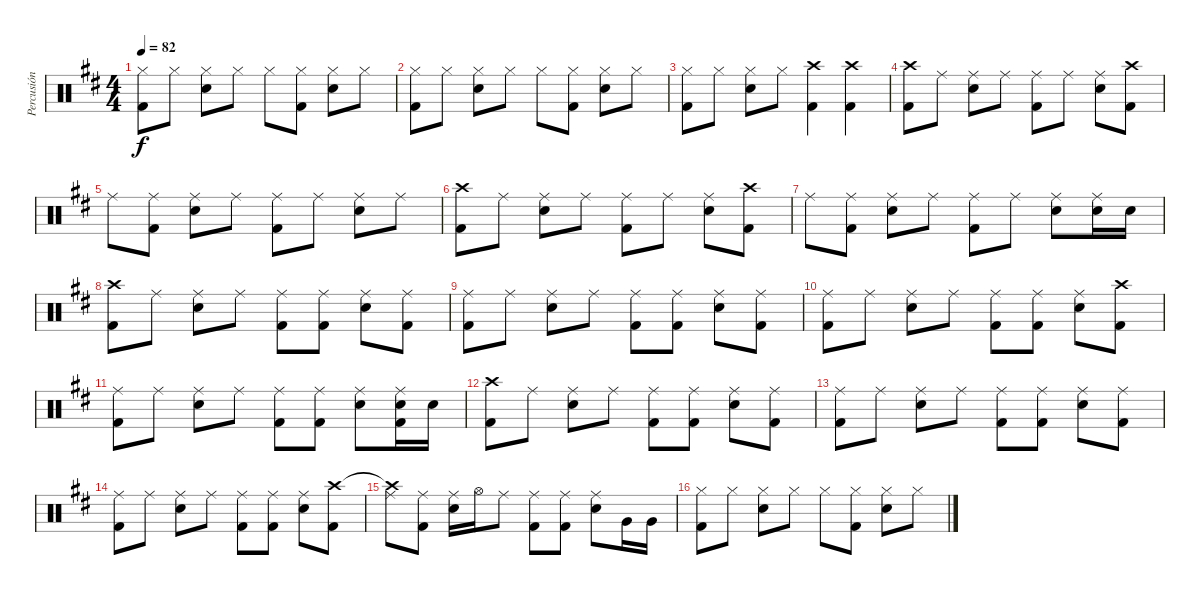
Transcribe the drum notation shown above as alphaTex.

\track ("Percusión" "Percusión") {instrument percussion}
\staff {score}
\articulation defaults
\ts (4 4)
\tempo 82
\clef neutral
\ks d
("Hi-Hat (closed)" "Kick (hit) 2").8{dy f} "Hi-Hat (closed)".8 ("Hi-Hat (closed)" "Snare (hit) 2").8 "Hi-Hat (closed)".8 "Hi-Hat (closed)".8 ("Hi-Hat (closed)" "Kick (hit) 2").8 ("Hi-Hat (closed)" "Snare (hit) 2").8 "Hi-Hat (closed)".8 |
("Hi-Hat (closed)" "Kick (hit) 2").8 "Hi-Hat (closed)".8 ("Hi-Hat (closed)" "Snare (hit) 2").8 "Hi-Hat (closed)".8 "Hi-Hat (closed)".8 ("Hi-Hat (closed)" "Kick (hit) 2").8 ("Hi-Hat (closed)" "Snare (hit) 2").8 "Hi-Hat (closed)".8 |
("Hi-Hat (closed)" "Kick (hit) 2").8 "Hi-Hat (closed)".8 ("Hi-Hat (closed)" "Snare (hit) 2").8 "Hi-Hat (closed)".8 ("Crash high (hit)" "Kick (hit) 2").4 ("Crash high (hit)" "Kick (hit) 2").4 |
("Crash high (hit)" "Kick (hit) 2").8 "Ride (middle)".8 ("Ride (middle)" "Snare (hit) 2").8 "Ride (middle)".8 ("Ride (middle)" "Kick (hit) 2").8 "Ride (middle)".8 ("Ride (middle)" "Snare (hit) 2").8 ("Crash high (hit)" "Kick (hit) 2").8 |
"Ride (middle)".8 ("Ride (middle)" "Kick (hit) 2").8 ("Ride (middle)" "Snare (hit) 2").8 "Ride (middle)".8 ("Ride (middle)" "Kick (hit) 2").8 "Ride (middle)".8 ("Ride (middle)" "Snare (hit) 2").8 "Ride (middle)".8 |
("Crash high (hit)" "Kick (hit) 2").8 "Ride (middle)".8 ("Ride (middle)" "Snare (hit) 2").8 "Ride (middle)".8 ("Ride (middle)" "Kick (hit) 2").8 "Ride (middle)".8 ("Ride (middle)" "Snare (hit) 2").8 ("Crash high (hit)" "Kick (hit) 2").8 |
"Ride (middle)".8 ("Ride (middle)" "Kick (hit) 2").8 ("Ride (middle)" "Snare (hit) 2").8 "Ride (middle)".8 ("Ride (middle)" "Kick (hit) 2").8 "Ride (middle)".8 ("Ride (middle)" "Snare (hit) 2").8 ("Ride (middle)" "Snare (hit) 2").16 "Snare (hit) 2".16 |
("Crash high (hit)" "Kick (hit) 2").8 "Ride (middle)".8 ("Ride (middle)" "Snare (hit) 2").8 "Ride (middle)".8 ("Ride (middle)" "Kick (hit) 2").8 ("Ride (middle)" "Kick (hit) 2").8 ("Ride (middle)" "Snare (hit) 2").8 ("Ride (middle)" "Kick (hit) 2").8 |
("Ride (middle)" "Kick (hit) 2").8 "Ride (middle)".8 ("Ride (middle)" "Snare (hit) 2").8 "Ride (middle)".8 ("Ride (middle)" "Kick (hit) 2").8 ("Ride (middle)" "Kick (hit) 2").8 ("Ride (middle)" "Snare (hit) 2").8 ("Ride (middle)" "Kick (hit) 2").8 |
("Ride (middle)" "Kick (hit) 2").8 "Ride (middle)".8 ("Ride (middle)" "Snare (hit) 2").8 "Ride (middle)".8 ("Ride (middle)" "Kick (hit) 2").8 ("Ride (middle)" "Kick (hit) 2").8 ("Ride (middle)" "Snare (hit) 2").8 ("Crash high (hit)" "Kick (hit) 2").8 |
("Ride (middle)" "Kick (hit) 2").8 "Ride (middle)".8 ("Ride (middle)" "Snare (hit) 2").8 "Ride (middle)".8 ("Ride (middle)" "Kick (hit) 2").8 ("Ride (middle)" "Kick (hit) 2").8 ("Ride (middle)" "Snare (hit) 2").8 ("Ride (middle)" "Snare (hit) 2" "Kick (hit) 2").16 "Snare (hit) 2".16 |
("Crash high (hit)" "Kick (hit) 2").8 "Ride (middle)".8 ("Ride (middle)" "Snare (hit) 2").8 "Ride (middle)".8 ("Ride (middle)" "Kick (hit) 2").8 ("Ride (middle)" "Kick (hit) 2").8 ("Ride (middle)" "Snare (hit) 2").8 ("Ride (middle)" "Kick (hit) 2").8 |
("Ride (middle)" "Kick (hit) 2").8 "Ride (middle)".8 ("Ride (middle)" "Snare (hit) 2").8 "Ride (middle)".8 ("Ride (middle)" "Kick (hit) 2").8 ("Ride (middle)" "Kick (hit) 2").8 ("Ride (middle)" "Snare (hit) 2").8 ("Ride (middle)" "Kick (hit) 2").8 |
("Ride (middle)" "Kick (hit) 2").8 "Ride (middle)".8 ("Ride (middle)" "Snare (hit) 2").8 "Ride (middle)".8 ("Ride (middle)" "Kick (hit) 2").8 ("Ride (middle)" "Kick (hit) 2").8 ("Ride (middle)" "Snare (hit) 2").8 ("Crash high (hit)" "Kick (hit) 2").8 |
("Crash high (hit)"{t} "Ride (middle)").8 ("Ride (middle)" "Kick (hit) 2").8 ("Ride (middle)" "Snare (hit) 2").16 "Hi-Hat (open)".16 "Ride (middle)".8 ("Ride (middle)" "Kick (hit) 2").8 ("Ride (middle)" "Kick (hit) 2").8 ("Ride (middle)" "Snare (hit) 2").8 "Very Low Tom (hit)".16 "Very Low Tom (hit)".16 |
("Hi-Hat (closed)" "Kick (hit) 2").8 "Hi-Hat (closed)".8 ("Hi-Hat (closed)" "Snare (hit) 2").8 "Hi-Hat (closed)".8 "Hi-Hat (closed)".8 ("Hi-Hat (closed)" "Kick (hit) 2").8 ("Hi-Hat (closed)" "Snare (hit) 2").8 "Hi-Hat (closed)".8
